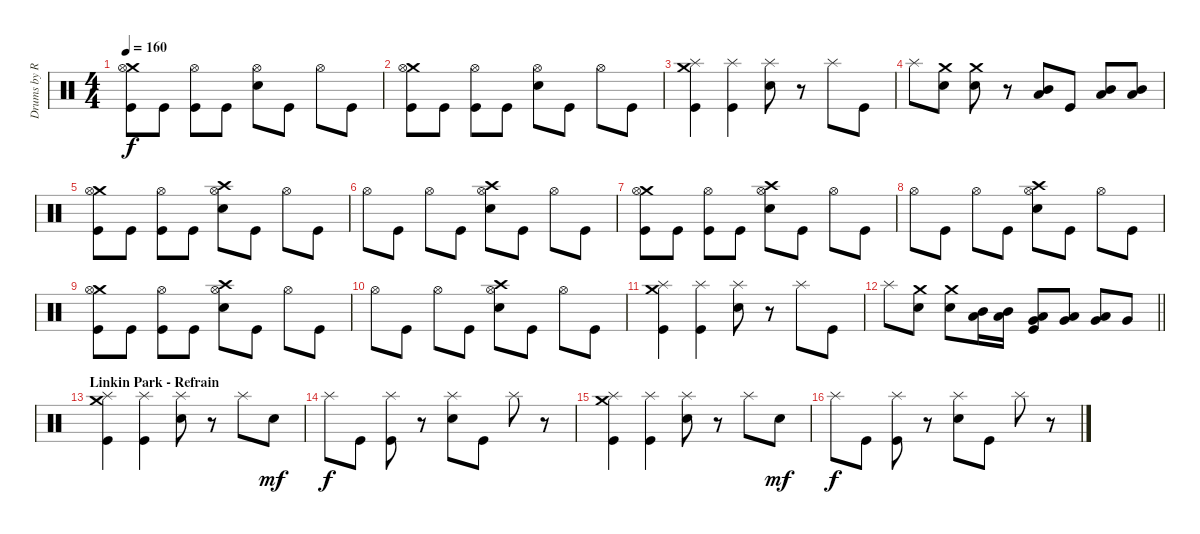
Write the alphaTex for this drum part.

\track ("Drums by Rob Bourdon" "Drums by R") {instrument percussion}
\staff {score}
\articulation defaults
\ts (4 4)
\tempo 160
\clef neutral
\ks c
("Crash medium (hit)" "Hi-Hat (open)" "Kick (hit)").8{dy f} "Kick (hit)".8 ("Hi-Hat (open)" "Kick (hit)").8 "Kick (hit)".8 ("Hi-Hat (open)" "Snare (hit) 2").8 "Kick (hit)".8 "Hi-Hat (open)".8 "Kick (hit)".8 |
("Crash medium (hit)" "Hi-Hat (open)" "Kick (hit)").8 "Kick (hit)".8 ("Hi-Hat (open)" "Kick (hit)").8 "Kick (hit)".8 ("Hi-Hat (open)" "Snare (hit) 2").8 "Kick (hit)".8 "Hi-Hat (open)".8 "Kick (hit)".8 |
("Crash medium (hit)" "Splash (hit)" "Kick (hit)").4 ("Splash (hit)" "Kick (hit)").4 ("Splash (hit)" "Snare (hit) 2").8 r.8 "Splash (hit)".8 "Kick (hit)".8 |
"Splash (hit)".8 ("Crash medium (hit)" "Snare (hit)").8 ("Crash medium (hit)" "Snare (hit)").8 r.8 ("Mid Tom (hit)" "Low Tom (hit)").8 "Kick (hit)".8 ("Mid Tom (hit)" "Low Tom (hit)").8 ("Mid Tom (hit)" "Low Tom (hit)").8 |
("Crash medium (hit)" "Hi-Hat (open)" "Kick (hit)").8 "Kick (hit)".8 ("Hi-Hat (open)" "Kick (hit)").8 "Kick (hit)".8 ("Crash high (hit)" "Hi-Hat (open)" "Snare (hit) 2").8 "Kick (hit)".8 "Hi-Hat (open)".8 "Kick (hit)".8 |
"Hi-Hat (open)".8 "Kick (hit)".8 "Hi-Hat (open)".8 "Kick (hit)".8 ("Crash high (hit)" "Hi-Hat (open)" "Snare (hit) 2").8 "Kick (hit)".8 "Hi-Hat (open)".8 "Kick (hit)".8 |
("Crash medium (hit)" "Hi-Hat (open)" "Kick (hit)").8 "Kick (hit)".8 ("Hi-Hat (open)" "Kick (hit)").8 "Kick (hit)".8 ("Crash high (hit)" "Hi-Hat (open)" "Snare (hit) 2").8 "Kick (hit)".8 "Hi-Hat (open)".8 "Kick (hit)".8 |
"Hi-Hat (open)".8 "Kick (hit)".8 "Hi-Hat (open)".8 "Kick (hit)".8 ("Crash high (hit)" "Hi-Hat (open)" "Snare (hit) 2").8 "Kick (hit)".8 "Hi-Hat (open)".8 "Kick (hit)".8 |
("Crash medium (hit)" "Hi-Hat (open)" "Kick (hit)").8 "Kick (hit)".8 ("Hi-Hat (open)" "Kick (hit)").8 "Kick (hit)".8 ("Crash high (hit)" "Hi-Hat (open)" "Snare (hit) 2").8 "Kick (hit)".8 "Hi-Hat (open)".8 "Kick (hit)".8 |
"Hi-Hat (open)".8 "Kick (hit)".8 "Hi-Hat (open)".8 "Kick (hit)".8 ("Crash high (hit)" "Hi-Hat (open)" "Snare (hit) 2").8 "Kick (hit)".8 "Hi-Hat (open)".8 "Kick (hit)".8 |
("Crash medium (hit)" "Splash (hit)" "Kick (hit)").4 ("Splash (hit)" "Kick (hit)").4 ("Splash (hit)" "Snare (hit) 2").8 r.8 "Splash (hit)".8 "Kick (hit)".8 |
\barLineRight lightlight "Splash (hit)".8
("Crash medium (hit)" "Snare (hit)").8 ("Crash medium (hit)" "Snare (hit)").8 ("Mid Tom (hit)" "Low Tom (hit)").16 ("Mid Tom (hit)" "Low Tom (hit)").16 ("Very Low Tom (hit)" "Low Tom (hit)" "Kick (hit)").8 ("Very Low Tom (hit)" "Low Tom (hit)").8 ("Low Floor Tom (hit)" "Very Low Tom (hit)").8 "Very Low Tom (hit)".8 |
\section ("" "Linkin Park - Refrain")
("Crash medium (hit)" "Splash (hit)" "Kick (hit)").4 ("Splash (hit)" "Kick (hit)").4 ("Splash (hit)" "Snare (hit) 2").8 r.8 "Splash (hit)".8 "Snare (hit) 2".8{dy mf} |
"Splash (hit)".8{dy f} "Kick (hit)".8 ("Splash (hit)" "Kick (hit)").8 r.8 ("Splash (hit)" "Snare (hit) 2").8 "Kick (hit)".8 "Splash (hit)".8 r.8 |
("Crash medium (hit)" "Splash (hit)" "Kick (hit)").4 ("Splash (hit)" "Kick (hit)").4 ("Splash (hit)" "Snare (hit) 2").8 r.8 "Splash (hit)".8 "Snare (hit) 2".8{dy mf} |
"Splash (hit)".8{dy f} "Kick (hit)".8 ("Splash (hit)" "Kick (hit)").8 r.8 ("Splash (hit)" "Snare (hit) 2").8 "Kick (hit)".8 "Splash (hit)".8 r.8
